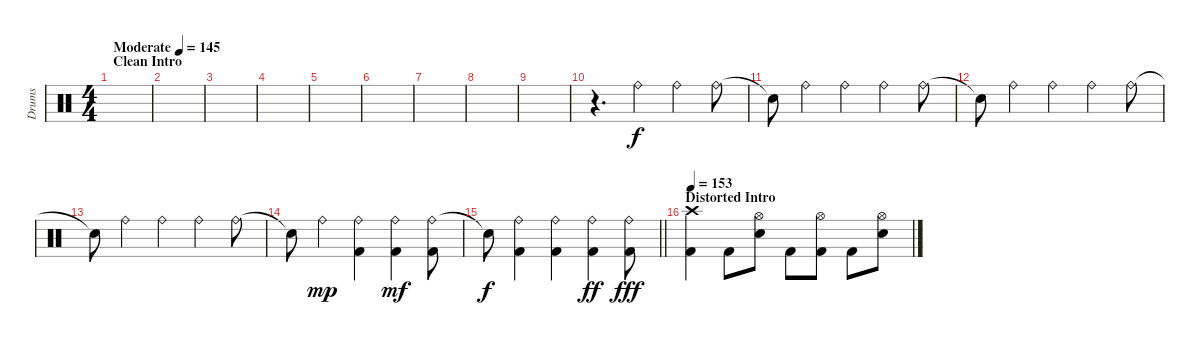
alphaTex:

\track ("Drums" "Drums") {instrument percussion}
\staff {score}
\articulation defaults
\ts (4 4)
\section ("" "Clean Intro")
\tempo (145 "Moderate")
\clef neutral
\ks c
|
|
|
|
|
|
|
|
|
r.4{d} "Ride (bell)".4 "Ride (bell)".4 "Ride (bell)".8 |
"Snare (hit)"{t}.8 "Ride (bell)".4 "Ride (bell)".4 "Ride (bell)".4 "Ride (bell)".8 |
"Snare (hit)"{t}.8 "Ride (bell)".4 "Ride (bell)".4 "Ride (bell)".4 "Ride (bell)".8 |
"Snare (hit)"{t}.8 "Ride (bell)".4 "Ride (bell)".4 "Ride (bell)".4 "Ride (bell)".8 |
"Snare (hit)"{t}.8{dy f} "Ride (bell)".4{dy mp} ("Ride (bell)" "Kick (hit) 2").4 ("Ride (bell)" "Kick (hit) 2").4{dy mf} ("Ride (bell)" "Kick (hit) 2").8 |
\barLineRight lightlight "Snare (hit)"{t}.8{dy f}
("Ride (bell)" "Kick (hit) 2").4 ("Ride (bell)" "Kick (hit) 2").4 ("Ride (bell)" "Kick (hit) 2").4{dy ff} ("Ride (bell)" "Kick (hit) 2").8{dy fff} |
\section ("" "Distorted Intro")
\tempo 153
("Crash high (hit)" "Kick (hit) 2").4 "Kick (hit) 2".8 ("Hi-Hat (open)" "Electric Snare (hit)").8 "Kick (hit) 2".8 ("Hi-Hat (open)" "Kick (hit) 2").8 "Kick (hit) 2".8 ("Hi-Hat (open)" "Electric Snare (hit)").8
